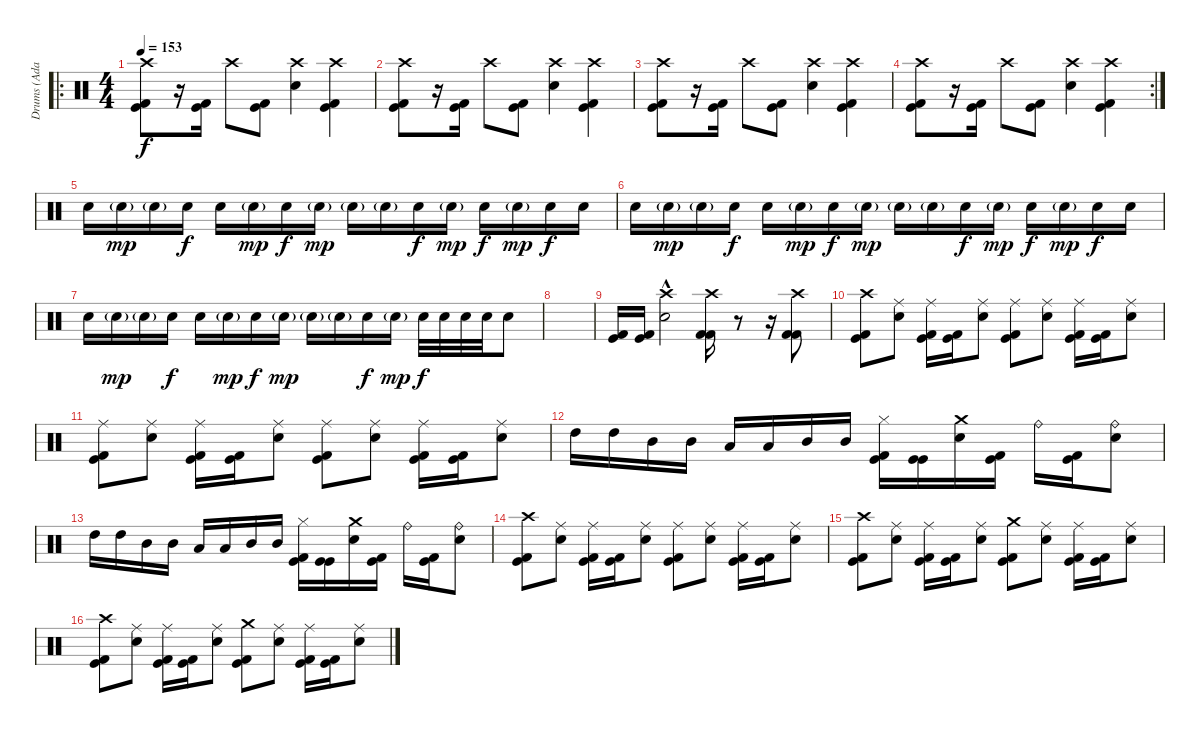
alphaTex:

\track ("Drums (Adam)" "Drums (Ada") {instrument percussion}
\staff {score}
\articulation defaults
\ro
\ts (4 4)
\tempo 153
\clef neutral
\ks c
("Crash high (hit)" "Kick (hit)" "Kick (hit) 2").8{dy f} r.16 ("Kick (hit)" "Kick (hit) 2").16 "Crash high (hit)".8 ("Kick (hit)" "Kick (hit) 2").8 ("Crash high (hit)" "Snare (hit) 2").4 ("Crash high (hit)" "Kick (hit)" "Kick (hit) 2").4 |
("Crash high (hit)" "Kick (hit)" "Kick (hit) 2").8 r.16 ("Kick (hit)" "Kick (hit) 2").16 "Crash high (hit)".8 ("Kick (hit)" "Kick (hit) 2").8 ("Crash high (hit)" "Snare (hit) 2").4 ("Crash high (hit)" "Kick (hit)" "Kick (hit) 2").4 |
("Crash high (hit)" "Kick (hit)" "Kick (hit) 2").8 r.16 ("Kick (hit)" "Kick (hit) 2").16 "Crash high (hit)".8 ("Kick (hit)" "Kick (hit) 2").8 ("Crash high (hit)" "Snare (hit) 2").4 ("Crash high (hit)" "Kick (hit)" "Kick (hit) 2").4 |
\rc 2
("Crash high (hit)" "Kick (hit)" "Kick (hit) 2").8 r.16 ("Kick (hit)" "Kick (hit) 2").16 "Crash high (hit)".8 ("Kick (hit)" "Kick (hit) 2").8 ("Crash high (hit)" "Snare (hit) 2").4 ("Crash high (hit)" "Kick (hit)" "Kick (hit) 2").4 |
"Snare (hit) 2".16 "Snare (hit) 2"{g}.16{dy mp} "Snare (hit) 2"{g}.16 "Snare (hit) 2".16{dy f} "Snare (hit) 2".16 "Snare (hit) 2"{g}.16{dy mp} "Snare (hit) 2".16{dy f} "Snare (hit) 2"{g}.16{dy mp} "Snare (hit) 2"{g}.16 "Snare (hit) 2"{g}.16 "Snare (hit) 2".16{dy f} "Snare (hit) 2"{g}.16{dy mp} "Snare (hit) 2".16{dy f} "Snare (hit) 2"{g}.16{dy mp} "Snare (hit) 2".16{dy f} "Snare (hit) 2".16 |
"Snare (hit) 2".16 "Snare (hit) 2"{g}.16{dy mp} "Snare (hit) 2"{g}.16 "Snare (hit) 2".16{dy f} "Snare (hit) 2".16 "Snare (hit) 2"{g}.16{dy mp} "Snare (hit) 2".16{dy f} "Snare (hit) 2"{g}.16{dy mp} "Snare (hit) 2"{g}.16 "Snare (hit) 2"{g}.16 "Snare (hit) 2".16{dy f} "Snare (hit) 2"{g}.16{dy mp} "Snare (hit) 2".16{dy f} "Snare (hit) 2"{g}.16{dy mp} "Snare (hit) 2".16{dy f} "Snare (hit) 2".16 |
"Snare (hit) 2".16 "Snare (hit) 2"{g}.16{dy mp} "Snare (hit) 2"{g}.16 "Snare (hit) 2".16{dy f} "Snare (hit) 2".16 "Snare (hit) 2"{g}.16{dy mp} "Snare (hit) 2".16{dy f} "Snare (hit) 2"{g}.16{dy mp} "Snare (hit) 2"{g}.16 "Snare (hit) 2"{g}.16 "Snare (hit) 2".16{dy f} "Snare (hit) 2"{g}.16{dy mp} "Snare (hit) 2".32{dy f} "Snare (hit) 2".32 "Snare (hit) 2".32 "Snare (hit) 2".32 "Snare (hit) 2".8 |
|
("Kick (hit)" "Kick (hit) 2").16 ("Kick (hit)" "Kick (hit) 2").16 ("Crash high (hit)"{hac} "Snare (hit) 2").2 ("Crash high (hit)" "Kick (hit) 2" "Kick (hit) 2").16 r.8 r.16 ("Crash high (hit)" "Kick (hit) 2" "Kick (hit) 2").8 |
("Crash high (hit)" "Kick (hit)" "Kick (hit) 2").8 ("Ride (middle)" "Snare (hit) 2").8 ("Ride (middle)" "Kick (hit)" "Kick (hit) 2").16 ("Kick (hit)" "Kick (hit) 2").16 ("Ride (middle)" "Snare (hit) 2").8 ("Ride (middle)" "Kick (hit)" "Kick (hit) 2").8 ("Ride (middle)" "Snare (hit) 2").8 ("Ride (middle)" "Kick (hit)" "Kick (hit) 2").16 ("Kick (hit)" "Kick (hit) 2").16 ("Ride (middle)" "Snare (hit) 2").8 |
("Ride (middle)" "Kick (hit)" "Kick (hit) 2").8 ("Ride (middle)" "Snare (hit) 2").8 ("Ride (middle)" "Kick (hit)" "Kick (hit) 2").16 ("Kick (hit)" "Kick (hit) 2").16 ("Ride (middle)" "Snare (hit) 2").8 ("Ride (middle)" "Kick (hit)" "Kick (hit) 2").8 ("Ride (middle)" "Snare (hit) 2").8 ("Ride (middle)" "Kick (hit)" "Kick (hit) 2").16 ("Kick (hit)" "Kick (hit) 2").16 ("Ride (middle)" "Snare (hit) 2").8 |
"High Tom (hit)".16 "High Tom (hit)".16 "Mid Tom (hit)".16 "Mid Tom (hit)".16 "Low Tom (hit)".16 "Low Tom (hit)".16 "Mid Tom (hit)".16 "Mid Tom (hit)".16 ("Hi-Hat (closed)" "Kick (hit)" "Kick (hit) 2").16 ("Kick (hit)" "Kick (hit)").16 ("Crash medium (hit)" "Snare (hit) 2").16 ("Kick (hit)" "Kick (hit) 2").16 "Ride (bell)".16 ("Kick (hit)" "Kick (hit) 2").16 ("Ride (bell)" "Snare (hit) 2").8 |
"High Tom (hit)".16 "High Tom (hit)".16 "Mid Tom (hit)".16 "Mid Tom (hit)".16 "Low Tom (hit)".16 "Low Tom (hit)".16 "Mid Tom (hit)".16 "Mid Tom (hit)".16 ("Hi-Hat (closed)" "Kick (hit)" "Kick (hit) 2").16 ("Kick (hit)" "Kick (hit)").16 ("Crash medium (hit)" "Snare (hit) 2").16 ("Kick (hit)" "Kick (hit) 2").16 "Ride (bell)".16 ("Kick (hit)" "Kick (hit) 2").16 ("Ride (bell)" "Snare (hit) 2").8 |
("Crash high (hit)" "Kick (hit)" "Kick (hit) 2").8 ("Ride (middle)" "Snare (hit) 2").8 ("Ride (middle)" "Kick (hit)" "Kick (hit) 2").16 ("Kick (hit)" "Kick (hit) 2").16 ("Ride (middle)" "Snare (hit) 2").8 ("Ride (middle)" "Kick (hit)" "Kick (hit) 2").8 ("Ride (middle)" "Snare (hit) 2").8 ("Ride (middle)" "Kick (hit)" "Kick (hit) 2").16 ("Kick (hit)" "Kick (hit) 2").16 ("Ride (middle)" "Snare (hit) 2").8 |
("Crash high (hit)" "Kick (hit)" "Kick (hit) 2").8 ("Ride (middle)" "Snare (hit) 2").8 ("Ride (middle)" "Kick (hit)" "Kick (hit) 2").16 ("Kick (hit)" "Kick (hit) 2").16 ("Ride (middle)" "Snare (hit) 2").8 ("Crash medium (hit)" "Kick (hit)" "Kick (hit) 2").8 ("Ride (middle)" "Snare (hit) 2").8 ("Ride (middle)" "Kick (hit)" "Kick (hit) 2").16 ("Kick (hit)" "Kick (hit) 2").16 ("Ride (middle)" "Snare (hit) 2").8 |
("Crash high (hit)" "Kick (hit)" "Kick (hit) 2").8 ("Ride (middle)" "Snare (hit) 2").8 ("Ride (middle)" "Kick (hit)" "Kick (hit) 2").16 ("Kick (hit)" "Kick (hit) 2").16 ("Ride (middle)" "Snare (hit) 2").8 ("Crash medium (hit)" "Kick (hit)" "Kick (hit) 2").8 ("Ride (middle)" "Snare (hit) 2").8 ("Ride (middle)" "Kick (hit)" "Kick (hit) 2").16 ("Kick (hit)" "Kick (hit) 2").16 ("Ride (middle)" "Snare (hit) 2").8
